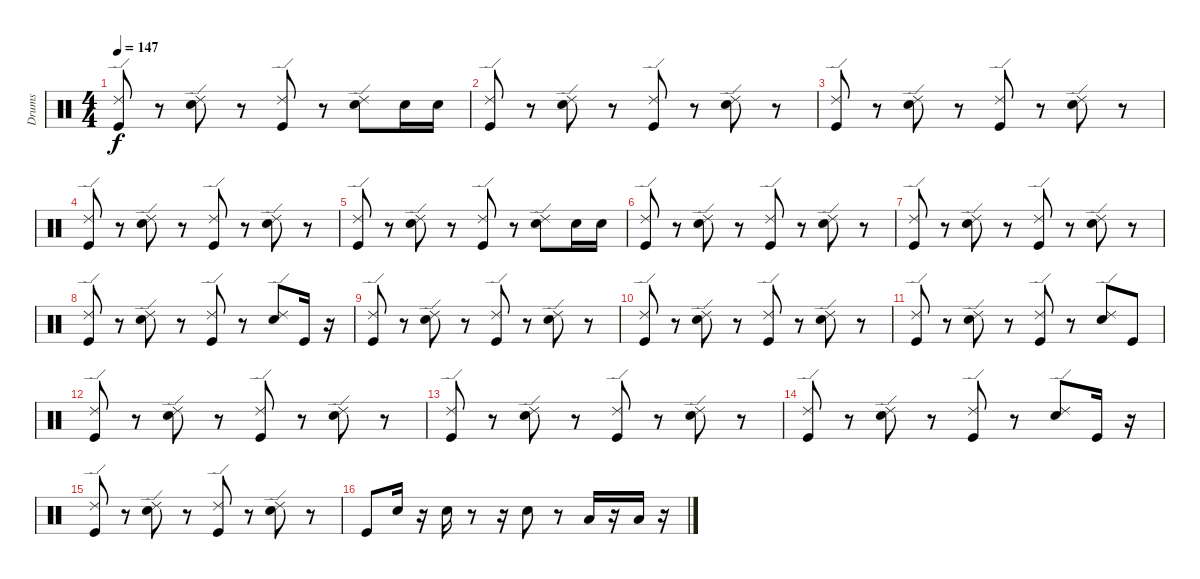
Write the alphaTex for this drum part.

\track ("Drums" "Drums") {instrument percussion}
\staff {score}
\articulation defaults
\ts (4 4)
\tempo 147
\clef neutral
\ks c
("Ride (edge) 2" "Kick (hit)").8{dy f} r.8 ("Ride (edge) 2" "Snare (hit) 2").8 r.8 ("Ride (edge) 2" "Kick (hit)").8 r.8 ("Ride (edge) 2" "Snare (hit) 2").8 "Snare (hit) 2".16 "Snare (hit) 2".16 |
("Ride (edge) 2" "Kick (hit)").8 r.8 ("Ride (edge) 2" "Snare (hit) 2").8 r.8 ("Ride (edge) 2" "Kick (hit)").8 r.8 ("Ride (edge) 2" "Snare (hit) 2").8 r.8 |
("Ride (edge) 2" "Kick (hit)").8 r.8 ("Ride (edge) 2" "Snare (hit) 2").8 r.8 ("Ride (edge) 2" "Kick (hit)").8 r.8 ("Ride (edge) 2" "Snare (hit) 2").8 r.8 |
("Ride (edge) 2" "Kick (hit)").8 r.8 ("Ride (edge) 2" "Snare (hit) 2").8 r.8 ("Ride (edge) 2" "Kick (hit)").8 r.8 ("Ride (edge) 2" "Snare (hit) 2").8 r.8 |
("Ride (edge) 2" "Kick (hit)").8 r.8 ("Ride (edge) 2" "Snare (hit) 2").8 r.8 ("Ride (edge) 2" "Kick (hit)").8 r.8 ("Ride (edge) 2" "Snare (hit) 2").8 "Snare (hit) 2".16 "Snare (hit) 2".16 |
("Ride (edge) 2" "Kick (hit)").8 r.8 ("Ride (edge) 2" "Snare (hit) 2").8 r.8 ("Ride (edge) 2" "Kick (hit)").8 r.8 ("Ride (edge) 2" "Snare (hit) 2").8 r.8 |
("Ride (edge) 2" "Kick (hit)").8 r.8 ("Ride (edge) 2" "Snare (hit) 2").8 r.8 ("Ride (edge) 2" "Kick (hit)").8 r.8 ("Ride (edge) 2" "Snare (hit) 2").8 r.8 |
("Ride (edge) 2" "Kick (hit)").8 r.8 ("Ride (edge) 2" "Snare (hit) 2").8 r.8 ("Ride (edge) 2" "Kick (hit)").8 r.8 ("Ride (edge) 2" "Snare (hit) 2").8 "Kick (hit)".16 r.16 |
("Ride (edge) 2" "Kick (hit)").8 r.8 ("Ride (edge) 2" "Snare (hit) 2").8 r.8 ("Ride (edge) 2" "Kick (hit)").8 r.8 ("Ride (edge) 2" "Snare (hit) 2").8 r.8 |
("Ride (edge) 2" "Kick (hit)").8 r.8 ("Ride (edge) 2" "Snare (hit) 2").8 r.8 ("Ride (edge) 2" "Kick (hit)").8 r.8 ("Ride (edge) 2" "Snare (hit) 2").8 r.8 |
("Ride (edge) 2" "Kick (hit)").8 r.8 ("Ride (edge) 2" "Snare (hit) 2").8 r.8 ("Ride (edge) 2" "Kick (hit)").8 r.8 ("Ride (edge) 2" "Snare (hit) 2").8 "Kick (hit)".8 |
("Ride (edge) 2" "Kick (hit)").8 r.8 ("Ride (edge) 2" "Snare (hit) 2").8 r.8 ("Ride (edge) 2" "Kick (hit)").8 r.8 ("Ride (edge) 2" "Snare (hit) 2").8 r.8 |
("Ride (edge) 2" "Kick (hit)").8 r.8 ("Ride (edge) 2" "Snare (hit) 2").8 r.8 ("Ride (edge) 2" "Kick (hit)").8 r.8 ("Ride (edge) 2" "Snare (hit) 2").8 r.8 |
("Ride (edge) 2" "Kick (hit)").8 r.8 ("Ride (edge) 2" "Snare (hit) 2").8 r.8 ("Ride (edge) 2" "Kick (hit)").8 r.8 ("Ride (edge) 2" "Snare (hit) 2").8 "Kick (hit)".16 r.16 |
("Ride (edge) 2" "Kick (hit)").8 r.8 ("Ride (edge) 2" "Snare (hit) 2").8 r.8 ("Ride (edge) 2" "Kick (hit)").8 r.8 ("Ride (edge) 2" "Snare (hit) 2").8 r.8 |
"Kick (hit)".8 "Snare (hit) 2".16 r.16 "Snare (hit) 2".16 r.8 r.16 "Snare (hit) 2".8 r.8 "Low Floor Tom (hit)".16 r.16 "Low Floor Tom (hit)".16 r.16
